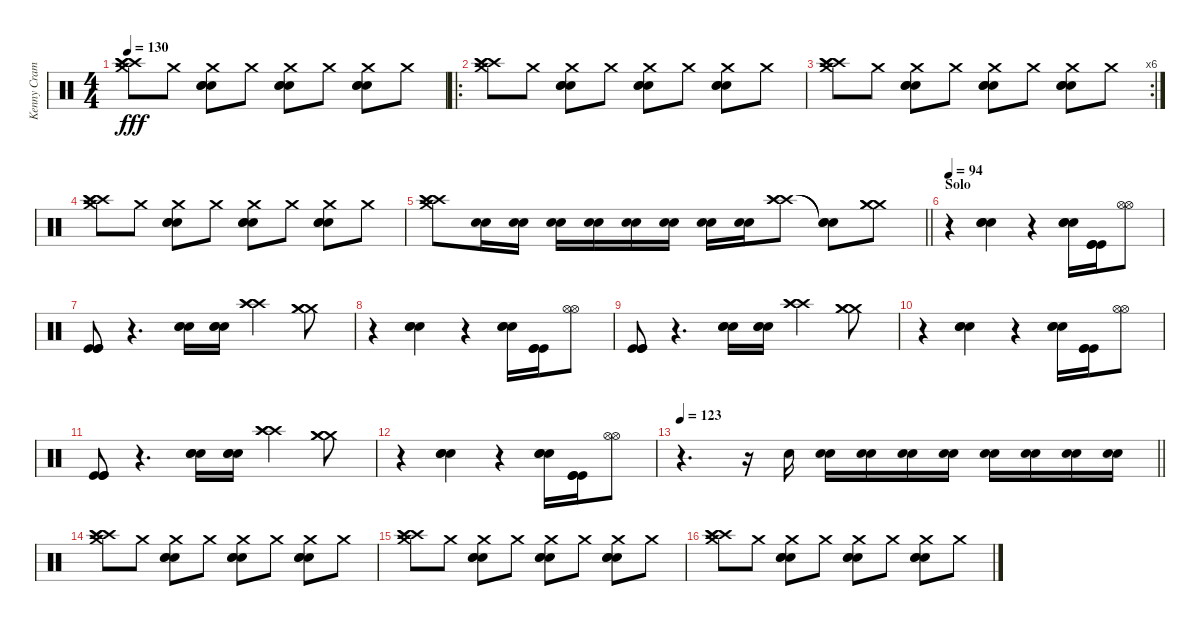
\track ("Kenny Cramme - Drums" "Kenny Cram") {instrument percussion}
\staff {score}
\articulation defaults
\ts (4 4)
\tempo 130
\clef neutral
\ks c
("Crash medium (hit)" "Crash high (hit)" "Crash high (hit)" "Crash high (hit)").8{dy fff} "Crash medium (hit)".8 ("Crash medium (hit)" "Snare (hit) 2" "Snare (hit) 2" "Snare (hit) 2").8 "Crash medium (hit)".8 ("Crash medium (hit)" "Snare (hit) 2" "Snare (hit) 2" "Snare (hit) 2").8 "Crash medium (hit)".8 ("Crash medium (hit)" "Snare (hit) 2" "Snare (hit) 2" "Snare (hit) 2").8 "Crash medium (hit)".8 |
\ro
("Crash medium (hit)" "Crash high (hit)" "Crash high (hit)" "Crash high (hit)").8 "Crash medium (hit)".8 ("Crash medium (hit)" "Snare (hit) 2" "Snare (hit) 2" "Snare (hit) 2").8 "Crash medium (hit)".8 ("Crash medium (hit)" "Snare (hit) 2" "Snare (hit) 2" "Snare (hit) 2").8 "Crash medium (hit)".8 ("Crash medium (hit)" "Snare (hit) 2" "Snare (hit) 2" "Snare (hit) 2").8 "Crash medium (hit)".8 |
\rc 6
("Crash medium (hit)" "Crash high (hit)" "Crash high (hit)" "Crash high (hit)").8 "Crash medium (hit)".8 ("Crash medium (hit)" "Snare (hit) 2" "Snare (hit) 2" "Snare (hit) 2").8 "Crash medium (hit)".8 ("Crash medium (hit)" "Snare (hit) 2" "Snare (hit) 2" "Snare (hit) 2").8 "Crash medium (hit)".8 ("Crash medium (hit)" "Snare (hit) 2" "Snare (hit) 2" "Snare (hit) 2").8 "Crash medium (hit)".8 |
("Crash medium (hit)" "Crash high (hit)" "Crash high (hit)" "Crash high (hit)").8 "Crash medium (hit)".8 ("Crash medium (hit)" "Snare (hit) 2" "Snare (hit) 2" "Snare (hit) 2").8 "Crash medium (hit)".8 ("Crash medium (hit)" "Snare (hit) 2" "Snare (hit) 2" "Snare (hit) 2").8 "Crash medium (hit)".8 ("Crash medium (hit)" "Snare (hit) 2" "Snare (hit) 2" "Snare (hit) 2").8 "Crash medium (hit)".8 |
\barLineRight lightlight
("Crash medium (hit)" "Crash high (hit)" "Crash high (hit)" "Crash high (hit)").8 ("Snare (hit) 2" "Snare (hit) 2").16 ("Snare (hit) 2" "Snare (hit) 2").16 ("Snare (hit) 2" "Snare (hit) 2").16 ("Snare (hit) 2" "Snare (hit) 2").16 ("Snare (hit) 2" "Snare (hit) 2").16 ("Snare (hit) 2" "Snare (hit) 2").16 ("Snare (hit) 2" "Snare (hit) 2").16 ("Snare (hit) 2" "Snare (hit) 2").16 ("Crash high (hit)" "Crash high (hit)" "Crash high (hit)").8 ("Snare (hit)"{t} "Snare (hit)"{t} "Snare (hit)"{t}).8 ("Crash medium (hit)" "Crash medium (hit)" "Crash medium (hit)").8 |
\section ("" "Solo")
\tempo 94
r.4 ("Snare (hit) 2" "Snare (hit) 2" "Snare (hit) 2").4 r.4 ("Snare (hit) 2" "Snare (hit) 2" "Snare (hit) 2").16 ("Kick (hit)" "Kick (hit)" "Kick (hit)").16 ("Hi-Hat (open)" "Hi-Hat (open)").8 |
("Kick (hit)" "Kick (hit)" "Kick (hit)").8 r.4{d} ("Snare (hit) 2" "Snare (hit) 2" "Snare (hit) 2").16 ("Snare (hit) 2" "Snare (hit) 2" "Snare (hit) 2").16 ("Crash high (hit)" "Crash high (hit)" "Crash high (hit)").4 ("Crash medium (hit)" "Crash medium (hit)" "Crash medium (hit)").8 |
r.4 ("Snare (hit) 2" "Snare (hit) 2" "Snare (hit) 2").4 r.4 ("Snare (hit) 2" "Snare (hit) 2" "Snare (hit) 2").16 ("Kick (hit)" "Kick (hit)" "Kick (hit)").16 ("Hi-Hat (open)" "Hi-Hat (open)").8 |
("Kick (hit)" "Kick (hit)" "Kick (hit)").8 r.4{d} ("Snare (hit) 2" "Snare (hit) 2" "Snare (hit) 2").16 ("Snare (hit) 2" "Snare (hit) 2" "Snare (hit) 2").16 ("Crash high (hit)" "Crash high (hit)" "Crash high (hit)").4 ("Crash medium (hit)" "Crash medium (hit)" "Crash medium (hit)").8 |
r.4 ("Snare (hit) 2" "Snare (hit) 2" "Snare (hit) 2").4 r.4 ("Snare (hit) 2" "Snare (hit) 2" "Snare (hit) 2").16 ("Kick (hit)" "Kick (hit)" "Kick (hit)").16 ("Hi-Hat (open)" "Hi-Hat (open)").8 |
("Kick (hit)" "Kick (hit)" "Kick (hit)").8 r.4{d} ("Snare (hit) 2" "Snare (hit) 2" "Snare (hit) 2").16 ("Snare (hit) 2" "Snare (hit) 2" "Snare (hit) 2").16 ("Crash high (hit)" "Crash high (hit)" "Crash high (hit)").4 ("Crash medium (hit)" "Crash medium (hit)" "Crash medium (hit)").8 |
r.4 ("Snare (hit) 2" "Snare (hit) 2" "Snare (hit) 2").4 r.4 ("Snare (hit) 2" "Snare (hit) 2" "Snare (hit) 2").16 ("Kick (hit)" "Kick (hit)" "Kick (hit)").16 ("Hi-Hat (open)" "Hi-Hat (open)").8 |
\tempo 123
\barLineRight lightlight
r.4{d} r.16 "Snare (hit) 2".16 ("Snare (hit) 2" "Snare (hit) 2").16 ("Snare (hit) 2" "Snare (hit) 2").16 ("Snare (hit) 2" "Snare (hit) 2").16 ("Snare (hit) 2" "Snare (hit) 2").16 ("Snare (hit) 2" "Snare (hit) 2").16 ("Snare (hit) 2" "Snare (hit) 2").16 ("Snare (hit) 2" "Snare (hit) 2").16 ("Snare (hit) 2" "Snare (hit) 2").16 |
("Crash medium (hit)" "Crash high (hit)" "Crash high (hit)" "Crash high (hit)").8 "Crash medium (hit)".8 ("Crash medium (hit)" "Snare (hit) 2" "Snare (hit) 2" "Snare (hit) 2").8 "Crash medium (hit)".8 ("Crash medium (hit)" "Snare (hit) 2" "Snare (hit) 2" "Snare (hit) 2").8 "Crash medium (hit)".8 ("Crash medium (hit)" "Snare (hit) 2" "Snare (hit) 2" "Snare (hit) 2").8 "Crash medium (hit)".8 |
("Crash medium (hit)" "Crash high (hit)" "Crash high (hit)" "Crash high (hit)").8 "Crash medium (hit)".8 ("Crash medium (hit)" "Snare (hit) 2" "Snare (hit) 2" "Snare (hit) 2").8 "Crash medium (hit)".8 ("Crash medium (hit)" "Snare (hit) 2" "Snare (hit) 2" "Snare (hit) 2").8 "Crash medium (hit)".8 ("Crash medium (hit)" "Snare (hit) 2" "Snare (hit) 2" "Snare (hit) 2").8 "Crash medium (hit)".8 |
("Crash medium (hit)" "Crash high (hit)" "Crash high (hit)" "Crash high (hit)").8 "Crash medium (hit)".8 ("Crash medium (hit)" "Snare (hit) 2" "Snare (hit) 2" "Snare (hit) 2").8 "Crash medium (hit)".8 ("Crash medium (hit)" "Snare (hit) 2" "Snare (hit) 2" "Snare (hit) 2").8 "Crash medium (hit)".8 ("Crash medium (hit)" "Snare (hit) 2" "Snare (hit) 2" "Snare (hit) 2").8 "Crash medium (hit)".8
